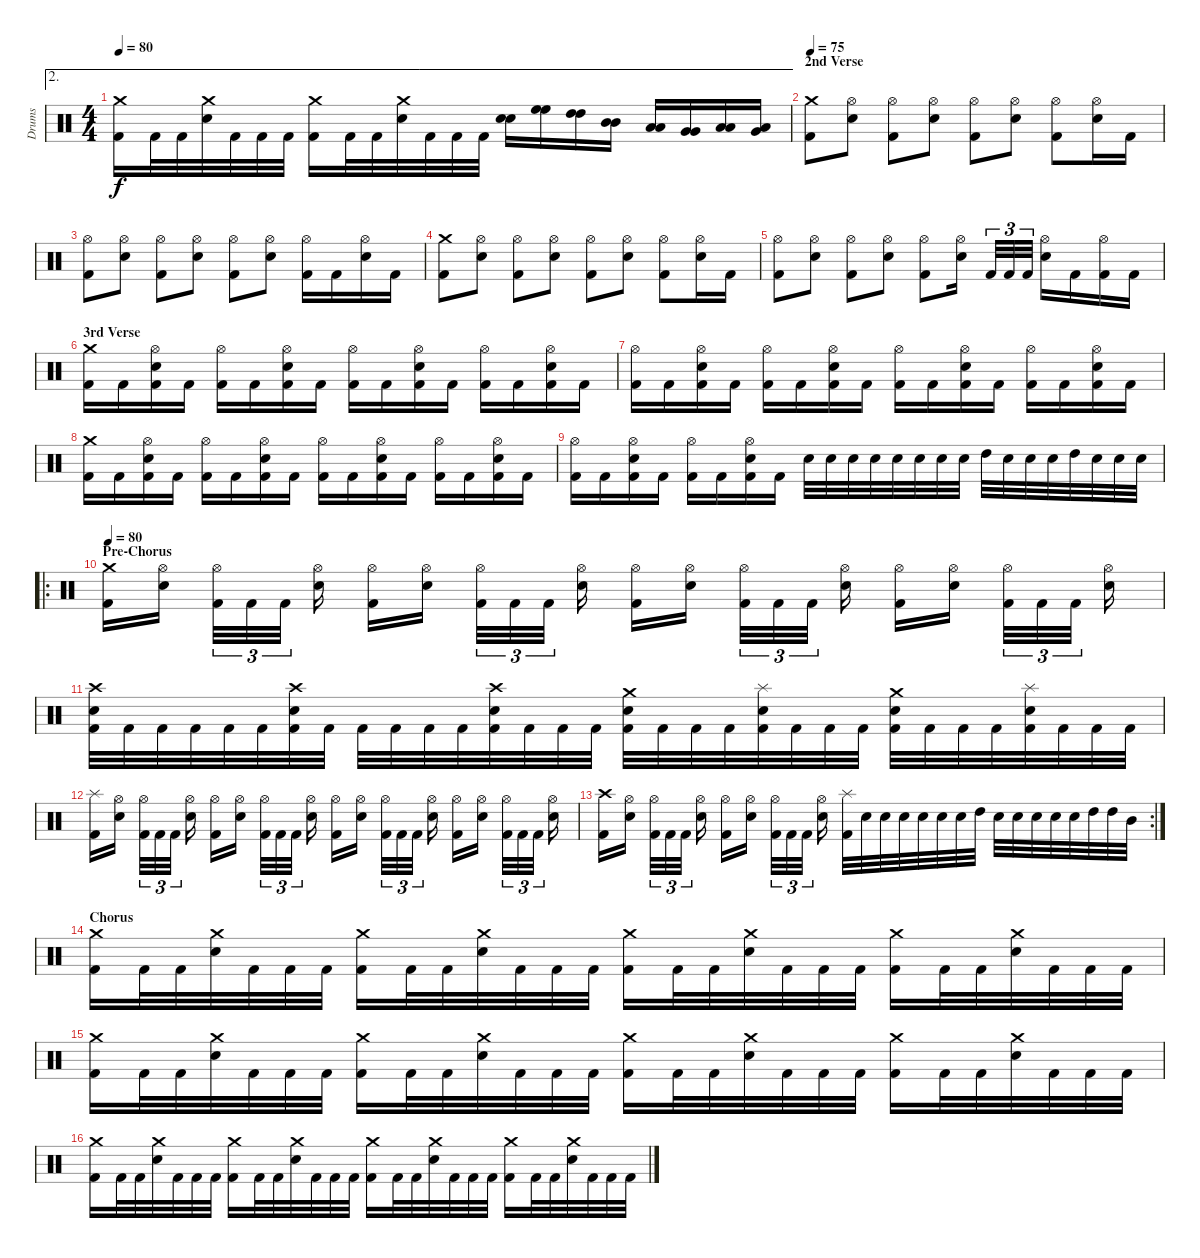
\track ("Drums" "Drums") {instrument percussion}
\staff {score}
\articulation defaults
\ae 2
\ts (4 4)
\tempo 80
\clef neutral
\ks c
("Crash medium (hit)" "Kick (hit) 2").16{dy f} "Kick (hit) 2".32 "Kick (hit) 2".32 ("Crash medium (hit)" "Electric Snare (hit)").32 "Kick (hit) 2".32 "Kick (hit) 2".32 "Kick (hit) 2".32 ("Crash medium (hit)" "Kick (hit) 2").16 "Kick (hit) 2".32 "Kick (hit) 2".32 ("Crash medium (hit)" "Electric Snare (hit)").32 "Kick (hit) 2".32 "Kick (hit) 2".32 "Kick (hit) 2".32 ("Electric Snare (hit)" "Electric Snare (hit)").16 ("High Floor Tom (hit)" "High Floor Tom (hit)").16 ("High Tom (hit)" "High Tom (hit)").16 ("Mid Tom (hit)" "Mid Tom (hit)").16 ("Low Tom (hit)" "Low Tom (hit)").16 ("Very Low Tom (hit)" "Very Low Tom (hit)").16 ("Low Floor Tom (hit)" "Low Floor Tom (hit)").16 ("Low Floor Tom (hit)" "Very Low Tom (hit)").16 |
\section ("" "2nd Verse")
\tempo 75
("Crash medium (hit)" "Kick (hit) 2").8 ("Hi-Hat (open)" "Electric Snare (hit)").8 ("Hi-Hat (open)" "Kick (hit) 2").8 ("Hi-Hat (open)" "Electric Snare (hit)").8 ("Hi-Hat (open)" "Kick (hit) 2").8 ("Hi-Hat (open)" "Electric Snare (hit)").8 ("Hi-Hat (open)" "Kick (hit) 2").8 ("Hi-Hat (open)" "Electric Snare (hit)").16 "Kick (hit) 2".16 |
("Hi-Hat (open)" "Kick (hit) 2").8 ("Hi-Hat (open)" "Electric Snare (hit)").8 ("Hi-Hat (open)" "Kick (hit) 2").8 ("Hi-Hat (open)" "Electric Snare (hit)").8 ("Hi-Hat (open)" "Kick (hit) 2").8 ("Hi-Hat (open)" "Electric Snare (hit)").8 ("Hi-Hat (open)" "Kick (hit) 2").16 "Kick (hit) 2".16 ("Hi-Hat (open)" "Electric Snare (hit)").16 "Kick (hit) 2".16 |
("Crash medium (hit)" "Kick (hit) 2").8 ("Hi-Hat (open)" "Electric Snare (hit)").8 ("Hi-Hat (open)" "Kick (hit) 2").8 ("Hi-Hat (open)" "Electric Snare (hit)").8 ("Hi-Hat (open)" "Kick (hit) 2").8 ("Hi-Hat (open)" "Electric Snare (hit)").8 ("Hi-Hat (open)" "Kick (hit) 2").8 ("Hi-Hat (open)" "Electric Snare (hit)").16 "Kick (hit) 2".16 |
("Hi-Hat (open)" "Kick (hit) 2").8 ("Hi-Hat (open)" "Electric Snare (hit)").8 ("Hi-Hat (open)" "Kick (hit) 2").8 ("Hi-Hat (open)" "Electric Snare (hit)").8 ("Hi-Hat (open)" "Kick (hit) 2").8 ("Hi-Hat (open)" "Electric Snare (hit)").16 "Kick (hit) 2".32{tu (3 2)} "Kick (hit) 2".32{tu (3 2)} "Kick (hit) 2".32{tu (3 2)} ("Hi-Hat (open)" "Electric Snare (hit)").16 "Kick (hit) 2".16 ("Hi-Hat (open)" "Kick (hit) 2").16 "Kick (hit) 2".16 |
\section ("" "3rd Verse")
("Crash medium (hit)" "Kick (hit) 2").16 "Kick (hit) 2".16 ("Hi-Hat (open)" "Electric Snare (hit)" "Kick (hit) 2").16 "Kick (hit) 2".16 ("Hi-Hat (open)" "Kick (hit) 2").16 "Kick (hit) 2".16 ("Hi-Hat (open)" "Electric Snare (hit)" "Kick (hit) 2").16 "Kick (hit) 2".16 ("Hi-Hat (open)" "Kick (hit) 2").16 "Kick (hit) 2".16 ("Hi-Hat (open)" "Electric Snare (hit)" "Kick (hit) 2").16 "Kick (hit) 2".16 ("Hi-Hat (open)" "Kick (hit) 2").16 "Kick (hit) 2".16 ("Hi-Hat (open)" "Electric Snare (hit)" "Kick (hit) 2").16 "Kick (hit) 2".16 |
("Hi-Hat (open)" "Kick (hit) 2").16 "Kick (hit) 2".16 ("Hi-Hat (open)" "Electric Snare (hit)" "Kick (hit) 2").16 "Kick (hit) 2".16 ("Hi-Hat (open)" "Kick (hit) 2").16 "Kick (hit) 2".16 ("Hi-Hat (open)" "Electric Snare (hit)" "Kick (hit) 2").16 "Kick (hit) 2".16 ("Hi-Hat (open)" "Kick (hit) 2").16 "Kick (hit) 2".16 ("Hi-Hat (open)" "Electric Snare (hit)" "Kick (hit) 2").16 "Kick (hit) 2".16 ("Hi-Hat (open)" "Kick (hit) 2").16 "Kick (hit) 2".16 ("Hi-Hat (open)" "Electric Snare (hit)" "Kick (hit) 2").16 "Kick (hit) 2".16 |
("Crash medium (hit)" "Kick (hit) 2").16 "Kick (hit) 2".16 ("Hi-Hat (open)" "Electric Snare (hit)" "Kick (hit) 2").16 "Kick (hit) 2".16 ("Hi-Hat (open)" "Kick (hit) 2").16 "Kick (hit) 2".16 ("Hi-Hat (open)" "Electric Snare (hit)" "Kick (hit) 2").16 "Kick (hit) 2".16 ("Hi-Hat (open)" "Kick (hit) 2").16 "Kick (hit) 2".16 ("Hi-Hat (open)" "Electric Snare (hit)" "Kick (hit) 2").16 "Kick (hit) 2".16 ("Hi-Hat (open)" "Kick (hit) 2").16 "Kick (hit) 2".16 ("Hi-Hat (open)" "Electric Snare (hit)" "Kick (hit) 2").16 "Kick (hit) 2".16 |
("Hi-Hat (open)" "Kick (hit) 2").16 "Kick (hit) 2".16 ("Hi-Hat (open)" "Electric Snare (hit)" "Kick (hit) 2").16 "Kick (hit) 2".16 ("Hi-Hat (open)" "Kick (hit) 2").16 "Kick (hit) 2".16 ("Hi-Hat (open)" "Electric Snare (hit)" "Kick (hit) 2").16 "Kick (hit) 2".16 "Electric Snare (hit)".32{volume 7} "Electric Snare (hit)".32{volume 16} "Electric Snare (hit)".32 "Electric Snare (hit)".32 "Electric Snare (hit)".32 "Electric Snare (hit)".32 "Electric Snare (hit)".32 "Electric Snare (hit)".32 "High Tom (hit)".32 "Electric Snare (hit)".32 "Electric Snare (hit)".32 "Electric Snare (hit)".32 "High Tom (hit)".32 "Electric Snare (hit)".32 "Electric Snare (hit)".32 "Electric Snare (hit)".32 |
\ro
\section ("" "Pre-Chorus")
\tempo 80
("Crash medium (hit)" "Kick (hit) 2").16 ("Hi-Hat (open)" "Electric Snare (hit)").16 ("Hi-Hat (open)" "Kick (hit) 2").32{tu (3 2)} "Kick (hit) 2".32{tu (3 2)} "Kick (hit) 2".32{tu (3 2)} ("Hi-Hat (open)" "Electric Snare (hit)").16 ("Hi-Hat (open)" "Kick (hit) 2").16 ("Hi-Hat (open)" "Electric Snare (hit)").16 ("Hi-Hat (open)" "Kick (hit) 2").32{tu (3 2)} "Kick (hit) 2".32{tu (3 2)} "Kick (hit) 2".32{tu (3 2)} ("Hi-Hat (open)" "Electric Snare (hit)").16 ("Hi-Hat (open)" "Kick (hit) 2").16 ("Hi-Hat (open)" "Electric Snare (hit)").16 ("Hi-Hat (open)" "Kick (hit) 2").32{tu (3 2)} "Kick (hit) 2".32{tu (3 2)} "Kick (hit) 2".32{tu (3 2)} ("Hi-Hat (open)" "Electric Snare (hit)").16 ("Hi-Hat (open)" "Kick (hit) 2").16 ("Hi-Hat (open)" "Electric Snare (hit)").16 ("Hi-Hat (open)" "Kick (hit) 2").32{tu (3 2)} "Kick (hit) 2".32{tu (3 2)} "Kick (hit) 2".32{tu (3 2)} ("Hi-Hat (open)" "Electric Snare (hit)").16 |
("Crash high (hit)" "Electric Snare (hit)" "Kick (hit) 2").32 "Kick (hit) 2".32 "Kick (hit) 2".32 "Kick (hit) 2".32 "Kick (hit) 2".32 "Kick (hit) 2".32 ("Crash high (hit)" "Electric Snare (hit)" "Kick (hit) 2").32 "Kick (hit) 2".32 "Kick (hit) 2".32 "Kick (hit) 2".32 "Kick (hit) 2".32 "Kick (hit) 2".32 ("Crash high (hit)" "Electric Snare (hit)" "Kick (hit) 2").32 "Kick (hit) 2".32 "Kick (hit) 2".32 "Kick (hit) 2".32 ("Crash medium (hit)" "Electric Snare (hit)" "Kick (hit) 2").32 "Kick (hit) 2".32 "Kick (hit) 2".32 "Kick (hit) 2".32 ("Splash (hit)" "Electric Snare (hit)" "Kick (hit) 2").32 "Kick (hit) 2".32 "Kick (hit) 2".32 "Kick (hit) 2".32 ("Crash medium (hit)" "Electric Snare (hit)" "Kick (hit) 2").32 "Kick (hit) 2".32 "Kick (hit) 2".32 "Kick (hit) 2".32 ("Splash (hit)" "Electric Snare (hit)" "Kick (hit) 2").32 "Kick (hit) 2".32 "Kick (hit) 2".32 "Kick (hit) 2".32 |
("Splash (hit)" "Kick (hit) 2").16 ("Hi-Hat (open)" "Electric Snare (hit)").16 ("Hi-Hat (open)" "Kick (hit) 2").32{tu (3 2)} "Kick (hit) 2".32{tu (3 2)} "Kick (hit) 2".32{tu (3 2)} ("Hi-Hat (open)" "Electric Snare (hit)").16 ("Hi-Hat (open)" "Kick (hit) 2").16 ("Hi-Hat (open)" "Electric Snare (hit)").16 ("Hi-Hat (open)" "Kick (hit) 2").32{tu (3 2)} "Kick (hit) 2".32{tu (3 2)} "Kick (hit) 2".32{tu (3 2)} ("Hi-Hat (open)" "Electric Snare (hit)").16 ("Hi-Hat (open)" "Kick (hit) 2").16 ("Hi-Hat (open)" "Electric Snare (hit)").16 ("Hi-Hat (open)" "Kick (hit) 2").32{tu (3 2)} "Kick (hit) 2".32{tu (3 2)} "Kick (hit) 2".32{tu (3 2)} ("Hi-Hat (open)" "Electric Snare (hit)").16 ("Hi-Hat (open)" "Kick (hit) 2").16 ("Hi-Hat (open)" "Electric Snare (hit)").16 ("Hi-Hat (open)" "Kick (hit) 2").32{tu (3 2)} "Kick (hit) 2".32{tu (3 2)} "Kick (hit) 2".32{tu (3 2)} ("Hi-Hat (open)" "Electric Snare (hit)").16 |
\rc 2
("Crash high (hit)" "Kick (hit) 2").16 ("Hi-Hat (open)" "Electric Snare (hit)").16 ("Hi-Hat (open)" "Kick (hit) 2").32{tu (3 2)} "Kick (hit) 2".32{tu (3 2)} "Kick (hit) 2".32{tu (3 2)} ("Hi-Hat (open)" "Electric Snare (hit)").16 ("Hi-Hat (open)" "Kick (hit) 2").16 ("Hi-Hat (open)" "Electric Snare (hit)").16 ("Hi-Hat (open)" "Kick (hit) 2").32{tu (3 2)} "Kick (hit) 2".32{tu (3 2)} "Kick (hit) 2".32{tu (3 2)} ("Hi-Hat (open)" "Electric Snare (hit)").16 ("Splash (hit)" "Kick (hit) 2").32 "Electric Snare (hit)".32{volume 6} "Electric Snare (hit)".32{volume 16} "Electric Snare (hit)".32 "Electric Snare (hit)".32 "Electric Snare (hit)".32 "Electric Snare (hit)".32 "High Tom (hit)".32 "Electric Snare (hit)".32 "Electric Snare (hit)".32 "Electric Snare (hit)".32 "Electric Snare (hit)".32 "Electric Snare (hit)".32 "High Tom (hit)".32 "High Tom (hit)".32 "Mid Tom (hit)".32 |
\section ("" "Chorus")
("Crash medium (hit)" "Kick (hit) 2").16 "Kick (hit) 2".32 "Kick (hit) 2".32 ("Crash medium (hit)" "Electric Snare (hit)").32 "Kick (hit) 2".32 "Kick (hit) 2".32 "Kick (hit) 2".32 ("Crash medium (hit)" "Kick (hit) 2").16 "Kick (hit) 2".32 "Kick (hit) 2".32 ("Crash medium (hit)" "Electric Snare (hit)").32 "Kick (hit) 2".32 "Kick (hit) 2".32 "Kick (hit) 2".32 ("Crash medium (hit)" "Kick (hit) 2").16 "Kick (hit) 2".32 "Kick (hit) 2".32 ("Crash medium (hit)" "Electric Snare (hit)").32 "Kick (hit) 2".32 "Kick (hit) 2".32 "Kick (hit) 2".32 ("Crash medium (hit)" "Kick (hit) 2").16 "Kick (hit) 2".32 "Kick (hit) 2".32 ("Crash medium (hit)" "Electric Snare (hit)").32 "Kick (hit) 2".32 "Kick (hit) 2".32 "Kick (hit) 2".32 |
("Crash medium (hit)" "Kick (hit) 2").16 "Kick (hit) 2".32 "Kick (hit) 2".32 ("Crash medium (hit)" "Electric Snare (hit)").32 "Kick (hit) 2".32 "Kick (hit) 2".32 "Kick (hit) 2".32 ("Crash medium (hit)" "Kick (hit) 2").16 "Kick (hit) 2".32 "Kick (hit) 2".32 ("Crash medium (hit)" "Electric Snare (hit)").32 "Kick (hit) 2".32 "Kick (hit) 2".32 "Kick (hit) 2".32 ("Crash medium (hit)" "Kick (hit) 2").16 "Kick (hit) 2".32 "Kick (hit) 2".32 ("Crash medium (hit)" "Electric Snare (hit)").32 "Kick (hit) 2".32 "Kick (hit) 2".32 "Kick (hit) 2".32 ("Crash medium (hit)" "Kick (hit) 2").16 "Kick (hit) 2".32 "Kick (hit) 2".32 ("Crash medium (hit)" "Electric Snare (hit)").32 "Kick (hit) 2".32 "Kick (hit) 2".32 "Kick (hit) 2".32 |
("Crash medium (hit)" "Kick (hit) 2").16 "Kick (hit) 2".32 "Kick (hit) 2".32 ("Crash medium (hit)" "Electric Snare (hit)").32 "Kick (hit) 2".32 "Kick (hit) 2".32 "Kick (hit) 2".32 ("Crash medium (hit)" "Kick (hit) 2").16 "Kick (hit) 2".32 "Kick (hit) 2".32 ("Crash medium (hit)" "Electric Snare (hit)").32 "Kick (hit) 2".32 "Kick (hit) 2".32 "Kick (hit) 2".32 ("Crash medium (hit)" "Kick (hit) 2").16 "Kick (hit) 2".32 "Kick (hit) 2".32 ("Crash medium (hit)" "Electric Snare (hit)").32 "Kick (hit) 2".32 "Kick (hit) 2".32 "Kick (hit) 2".32 ("Crash medium (hit)" "Kick (hit) 2").16 "Kick (hit) 2".32 "Kick (hit) 2".32 ("Crash medium (hit)" "Electric Snare (hit)").32 "Kick (hit) 2".32 "Kick (hit) 2".32 "Kick (hit) 2".32
